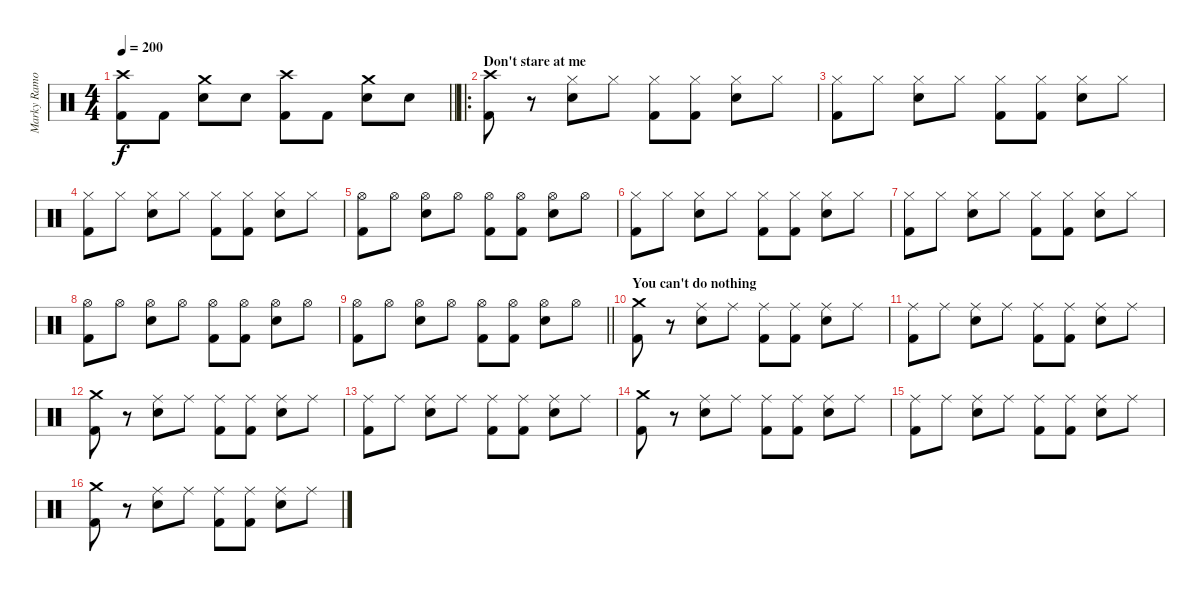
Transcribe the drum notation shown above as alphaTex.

\track ("Marky Ramone" "Marky Ramo") {instrument percussion}
\staff {score}
\articulation defaults
\ts (4 4)
\tempo 200
\clef neutral
\barLineRight lightlight
\ks c
("Crash high (hit)" "Kick (hit) 2").8{dy f} "Kick (hit) 2".8 ("Crash medium (hit)" "Electric Snare (hit)").8 "Electric Snare (hit)".8 ("Crash high (hit)" "Kick (hit) 2").8 "Kick (hit) 2".8 ("Crash medium (hit)" "Electric Snare (hit)").8 "Electric Snare (hit)".8 |
\ro
\section ("" "Don't stare at me")
("Crash high (hit)" "Kick (hit) 2").8 r.8 ("Hi-Hat (closed)" "Electric Snare (hit)").8 "Hi-Hat (closed)".8 ("Hi-Hat (closed)" "Kick (hit) 2").8 ("Hi-Hat (closed)" "Kick (hit) 2").8 ("Hi-Hat (closed)" "Electric Snare (hit)").8 "Hi-Hat (closed)".8 |
("Hi-Hat (closed)" "Kick (hit) 2").8 "Hi-Hat (closed)".8 ("Hi-Hat (closed)" "Electric Snare (hit)").8 "Hi-Hat (closed)".8 ("Hi-Hat (closed)" "Kick (hit) 2").8 ("Hi-Hat (closed)" "Kick (hit) 2").8 ("Hi-Hat (closed)" "Electric Snare (hit)").8 "Hi-Hat (closed)".8 |
("Hi-Hat (closed)" "Kick (hit) 2").8 "Hi-Hat (closed)".8 ("Hi-Hat (closed)" "Electric Snare (hit)").8 "Hi-Hat (closed)".8 ("Hi-Hat (closed)" "Kick (hit) 2").8 ("Hi-Hat (closed)" "Kick (hit) 2").8 ("Hi-Hat (closed)" "Electric Snare (hit)").8 "Hi-Hat (closed)".8 |
("Hi-Hat (open)" "Kick (hit) 2").8 "Hi-Hat (open)".8 ("Hi-Hat (open)" "Electric Snare (hit)").8 "Hi-Hat (open)".8 ("Hi-Hat (open)" "Kick (hit) 2").8 ("Hi-Hat (open)" "Kick (hit) 2").8 ("Hi-Hat (open)" "Electric Snare (hit)").8 "Hi-Hat (open)".8 |
("Hi-Hat (closed)" "Kick (hit) 2").8 "Hi-Hat (closed)".8 ("Hi-Hat (closed)" "Electric Snare (hit)").8 "Hi-Hat (closed)".8 ("Hi-Hat (closed)" "Kick (hit) 2").8 ("Hi-Hat (closed)" "Kick (hit) 2").8 ("Hi-Hat (closed)" "Electric Snare (hit)").8 "Hi-Hat (closed)".8 |
("Hi-Hat (closed)" "Kick (hit) 2").8 "Hi-Hat (closed)".8 ("Hi-Hat (closed)" "Electric Snare (hit)").8 "Hi-Hat (closed)".8 ("Hi-Hat (closed)" "Kick (hit) 2").8 ("Hi-Hat (closed)" "Kick (hit) 2").8 ("Hi-Hat (closed)" "Electric Snare (hit)").8 "Hi-Hat (closed)".8 |
("Hi-Hat (open)" "Kick (hit) 2").8 "Hi-Hat (open)".8 ("Hi-Hat (open)" "Electric Snare (hit)").8 "Hi-Hat (open)".8 ("Hi-Hat (open)" "Kick (hit) 2").8 ("Hi-Hat (open)" "Kick (hit) 2").8 ("Hi-Hat (open)" "Electric Snare (hit)").8 "Hi-Hat (open)".8 |
\barLineRight lightlight
("Hi-Hat (open)" "Kick (hit) 2").8 "Hi-Hat (open)".8 ("Hi-Hat (open)" "Electric Snare (hit)").8 "Hi-Hat (open)".8 ("Hi-Hat (open)" "Kick (hit) 2").8 ("Hi-Hat (open)" "Kick (hit) 2").8 ("Hi-Hat (open)" "Electric Snare (hit)").8 "Hi-Hat (open)".8 |
\section ("" "You can't do nothing")
("Crash medium (hit)" "Kick (hit) 2").8 r.8 ("Ride (middle)" "Electric Snare (hit)").8 "Ride (middle)".8 ("Ride (middle)" "Kick (hit) 2").8 ("Ride (middle)" "Kick (hit) 2").8 ("Ride (middle)" "Electric Snare (hit)").8 "Ride (middle)".8 |
("Ride (middle)" "Kick (hit) 2").8 "Ride (middle)".8 ("Ride (middle)" "Electric Snare (hit)").8 "Ride (middle)".8 ("Ride (middle)" "Kick (hit) 2").8 ("Ride (middle)" "Kick (hit) 2").8 ("Ride (middle)" "Electric Snare (hit)").8 "Ride (middle)".8 |
("Crash medium (hit)" "Kick (hit) 2").8 r.8 ("Ride (middle)" "Electric Snare (hit)").8 "Ride (middle)".8 ("Ride (middle)" "Kick (hit) 2").8 ("Ride (middle)" "Kick (hit) 2").8 ("Ride (middle)" "Electric Snare (hit)").8 "Ride (middle)".8 |
("Ride (middle)" "Kick (hit) 2").8 "Ride (middle)".8 ("Ride (middle)" "Electric Snare (hit)").8 "Ride (middle)".8 ("Ride (middle)" "Kick (hit) 2").8 ("Ride (middle)" "Kick (hit) 2").8 ("Ride (middle)" "Electric Snare (hit)").8 "Ride (middle)".8 |
("Crash medium (hit)" "Kick (hit) 2").8 r.8 ("Ride (middle)" "Electric Snare (hit)").8 "Ride (middle)".8 ("Ride (middle)" "Kick (hit) 2").8 ("Ride (middle)" "Kick (hit) 2").8 ("Ride (middle)" "Electric Snare (hit)").8 "Ride (middle)".8 |
("Ride (middle)" "Kick (hit) 2").8 "Ride (middle)".8 ("Ride (middle)" "Electric Snare (hit)").8 "Ride (middle)".8 ("Ride (middle)" "Kick (hit) 2").8 ("Ride (middle)" "Kick (hit) 2").8 ("Ride (middle)" "Electric Snare (hit)").8 "Ride (middle)".8 |
("Crash medium (hit)" "Kick (hit) 2").8 r.8 ("Ride (middle)" "Electric Snare (hit)").8 "Ride (middle)".8 ("Ride (middle)" "Kick (hit) 2").8 ("Ride (middle)" "Kick (hit) 2").8 ("Ride (middle)" "Electric Snare (hit)").8 "Ride (middle)".8
